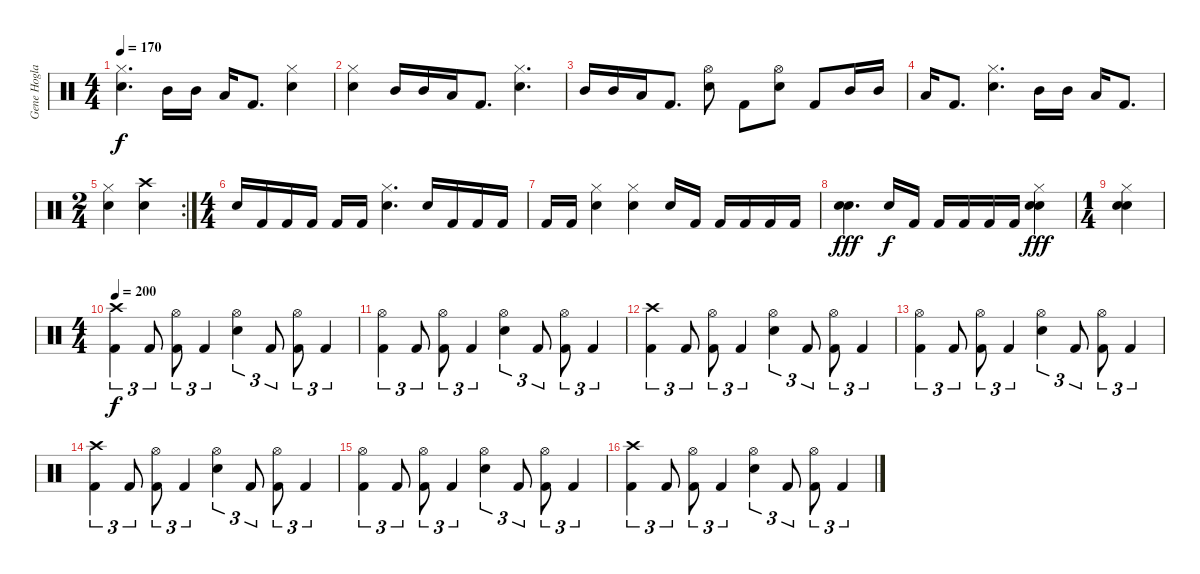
\track ("Gene Hoglan" "Gene Hogla") {instrument percussion}
\staff {score}
\articulation defaults
\ts (4 4)
\tempo 170
\clef neutral
\ks c
("Hi-Hat (closed)" "Snare (hit) 2").4{d dy f} "Mid Tom (hit)".16 "Mid Tom (hit)".16 "Low Tom (hit)".16 "Kick (hit) 2".8{d} ("Hi-Hat (closed)" "Snare (hit) 2").4 |
("Hi-Hat (closed)" "Snare (hit) 2").4 "Mid Tom (hit)".16 "Mid Tom (hit)".16 "Low Tom (hit)".16 "Kick (hit) 2".8{d} ("Hi-Hat (closed)" "Snare (hit) 2").4{d} |
"Mid Tom (hit)".16 "Mid Tom (hit)".16 "Low Tom (hit)".16 "Kick (hit) 2".8{d} ("Hi-Hat (open)" "Snare (hit) 2").8 "Kick (hit) 2".8 ("Hi-Hat (open)" "Snare (hit) 2").8 "Kick (hit) 2".8 "Mid Tom (hit)".16 "Mid Tom (hit)".16 |
"Low Tom (hit)".16 "Kick (hit) 2".8{d} ("Hi-Hat (closed)" "Snare (hit) 2").4{d} "Mid Tom (hit)".16 "Mid Tom (hit)".16 "Low Tom (hit)".16 "Kick (hit) 2".8{d} |
\rc 2
\ts (2 4)
("Hi-Hat (closed)" "Snare (hit) 2").4 ("Crash high (hit)" "Snare (hit) 2").4 |
\ts (4 4)
"Snare (hit) 2".16 "Kick (hit) 2".16 "Kick (hit) 2".16 "Kick (hit) 2".16 "Kick (hit) 2".16 "Kick (hit) 2".16 ("Hi-Hat (closed)" "Snare (hit) 2").4{d} "Snare (hit) 2".16 "Kick (hit) 2".16 "Kick (hit) 2".16 "Kick (hit) 2".16 |
"Kick (hit) 2".16 "Kick (hit) 2".16 ("Hi-Hat (closed)" "Snare (hit) 2").4 ("Hi-Hat (closed)" "Snare (hit) 2").4 "Snare (hit) 2".16 "Kick (hit) 2".16 "Kick (hit) 2".16 "Kick (hit) 2".16 "Kick (hit) 2".16 "Kick (hit) 2".16 |
("Snare (hit) 2" "Snare (hit) 2").4{d dy fff} "Snare (hit) 2".16{dy f} "Kick (hit) 2".16 "Kick (hit) 2".16 "Kick (hit) 2".16 "Kick (hit) 2".16 "Kick (hit) 2".16 ("Hi-Hat (closed)" "Snare (hit) 2" "Snare (hit) 2").4{dy fff} |
\ts (1 4)
("Hi-Hat (closed)" "Snare (hit) 2" "Snare (hit) 2").4 |
\ts (4 4)
\tempo 200
("Crash high (hit)" "Kick (hit) 2").4{tu (3 2) dy f} "Kick (hit) 2".8{tu (3 2)} ("Hi-Hat (open)" "Kick (hit) 2").8{tu (3 2)} "Kick (hit) 2".4{tu (3 2)} ("Hi-Hat (open)" "Snare (hit) 2").4{tu (3 2)} "Kick (hit) 2".8{tu (3 2)} ("Hi-Hat (open)" "Kick (hit) 2").8{tu (3 2)} "Kick (hit) 2".4{tu (3 2)} |
("Hi-Hat (open)" "Kick (hit) 2").4{tu (3 2)} "Kick (hit) 2".8{tu (3 2)} ("Hi-Hat (open)" "Kick (hit) 2").8{tu (3 2)} "Kick (hit) 2".4{tu (3 2)} ("Hi-Hat (open)" "Snare (hit) 2").4{tu (3 2)} "Kick (hit) 2".8{tu (3 2)} ("Hi-Hat (open)" "Kick (hit) 2").8{tu (3 2)} "Kick (hit) 2".4{tu (3 2)} |
("Crash high (hit)" "Kick (hit) 2").4{tu (3 2)} "Kick (hit) 2".8{tu (3 2)} ("Hi-Hat (open)" "Kick (hit) 2").8{tu (3 2)} "Kick (hit) 2".4{tu (3 2)} ("Hi-Hat (open)" "Snare (hit) 2").4{tu (3 2)} "Kick (hit) 2".8{tu (3 2)} ("Hi-Hat (open)" "Kick (hit) 2").8{tu (3 2)} "Kick (hit) 2".4{tu (3 2)} |
("Hi-Hat (open)" "Kick (hit) 2").4{tu (3 2)} "Kick (hit) 2".8{tu (3 2)} ("Hi-Hat (open)" "Kick (hit) 2").8{tu (3 2)} "Kick (hit) 2".4{tu (3 2)} ("Hi-Hat (open)" "Snare (hit) 2").4{tu (3 2)} "Kick (hit) 2".8{tu (3 2)} ("Hi-Hat (open)" "Kick (hit) 2").8{tu (3 2)} "Kick (hit) 2".4{tu (3 2)} |
("Crash high (hit)" "Kick (hit) 2").4{tu (3 2)} "Kick (hit) 2".8{tu (3 2)} ("Hi-Hat (open)" "Kick (hit) 2").8{tu (3 2)} "Kick (hit) 2".4{tu (3 2)} ("Hi-Hat (open)" "Snare (hit) 2").4{tu (3 2)} "Kick (hit) 2".8{tu (3 2)} ("Hi-Hat (open)" "Kick (hit) 2").8{tu (3 2)} "Kick (hit) 2".4{tu (3 2)} |
("Hi-Hat (open)" "Kick (hit) 2").4{tu (3 2)} "Kick (hit) 2".8{tu (3 2)} ("Hi-Hat (open)" "Kick (hit) 2").8{tu (3 2)} "Kick (hit) 2".4{tu (3 2)} ("Hi-Hat (open)" "Snare (hit) 2").4{tu (3 2)} "Kick (hit) 2".8{tu (3 2)} ("Hi-Hat (open)" "Kick (hit) 2").8{tu (3 2)} "Kick (hit) 2".4{tu (3 2)} |
("Crash high (hit)" "Kick (hit) 2").4{tu (3 2)} "Kick (hit) 2".8{tu (3 2)} ("Hi-Hat (open)" "Kick (hit) 2").8{tu (3 2)} "Kick (hit) 2".4{tu (3 2)} ("Hi-Hat (open)" "Snare (hit) 2").4{tu (3 2)} "Kick (hit) 2".8{tu (3 2)} ("Hi-Hat (open)" "Kick (hit) 2").8{tu (3 2)} "Kick (hit) 2".4{tu (3 2)}
